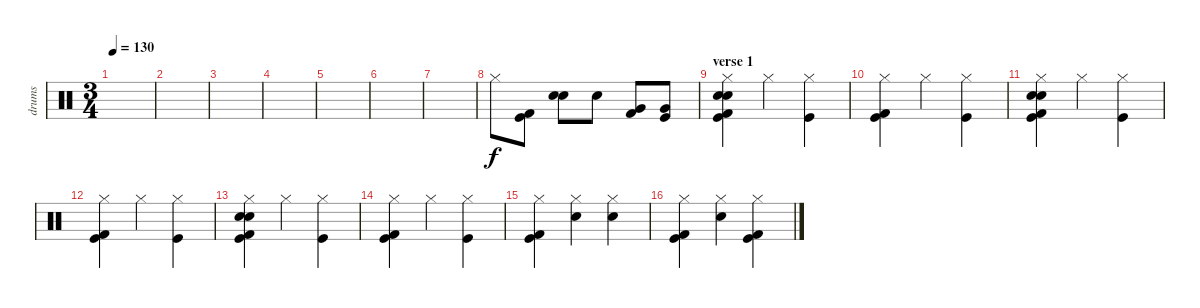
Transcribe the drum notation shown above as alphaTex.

\track ("drums" "drums") {instrument percussion}
\staff {score}
\articulation defaults
\ts (3 4)
\tempo 130
\clef neutral
\ks c
|
|
|
|
|
|
|
"Hi-Hat (closed)".8 ("Kick (hit) 2" "Kick (hit)").8 ("Electric Snare (hit)" "Snare (hit) 2").8 "Snare (hit) 2".8 ("Very Low Tom (hit)" "Kick (hit) 2").8 ("Very Low Tom (hit)" "Kick (hit)").8 |
\section ("" "verse 1")
("Hi-Hat (closed)" "Electric Snare (hit)" "Snare (hit) 2" "Kick (hit) 2" "Kick (hit)").4 "Hi-Hat (closed)".4 ("Hi-Hat (closed)" "Kick (hit)").4 |
("Hi-Hat (closed)" "Kick (hit) 2" "Kick (hit)").4 "Hi-Hat (closed)".4 ("Hi-Hat (closed)" "Kick (hit)").4 |
("Hi-Hat (closed)" "Electric Snare (hit)" "Snare (hit) 2" "Kick (hit) 2" "Kick (hit)").4 "Hi-Hat (closed)".4 ("Hi-Hat (closed)" "Kick (hit)").4 |
("Hi-Hat (closed)" "Kick (hit) 2" "Kick (hit)").4 "Hi-Hat (closed)".4 ("Hi-Hat (closed)" "Kick (hit)").4 |
("Hi-Hat (closed)" "Electric Snare (hit)" "Snare (hit) 2" "Kick (hit) 2" "Kick (hit)").4 "Hi-Hat (closed)".4 ("Hi-Hat (closed)" "Kick (hit)").4 |
("Hi-Hat (closed)" "Kick (hit) 2" "Kick (hit)").4 "Hi-Hat (closed)".4 ("Hi-Hat (closed)" "Kick (hit)").4 |
("Hi-Hat (closed)" "Kick (hit) 2" "Kick (hit)").4 ("Hi-Hat (closed)" "Snare (hit) 2").4 ("Hi-Hat (closed)" "Snare (hit) 2").4 |
("Hi-Hat (closed)" "Kick (hit) 2" "Kick (hit)").4 ("Hi-Hat (closed)" "Snare (hit) 2").4 ("Hi-Hat (closed)" "Kick (hit) 2" "Kick (hit)").4
